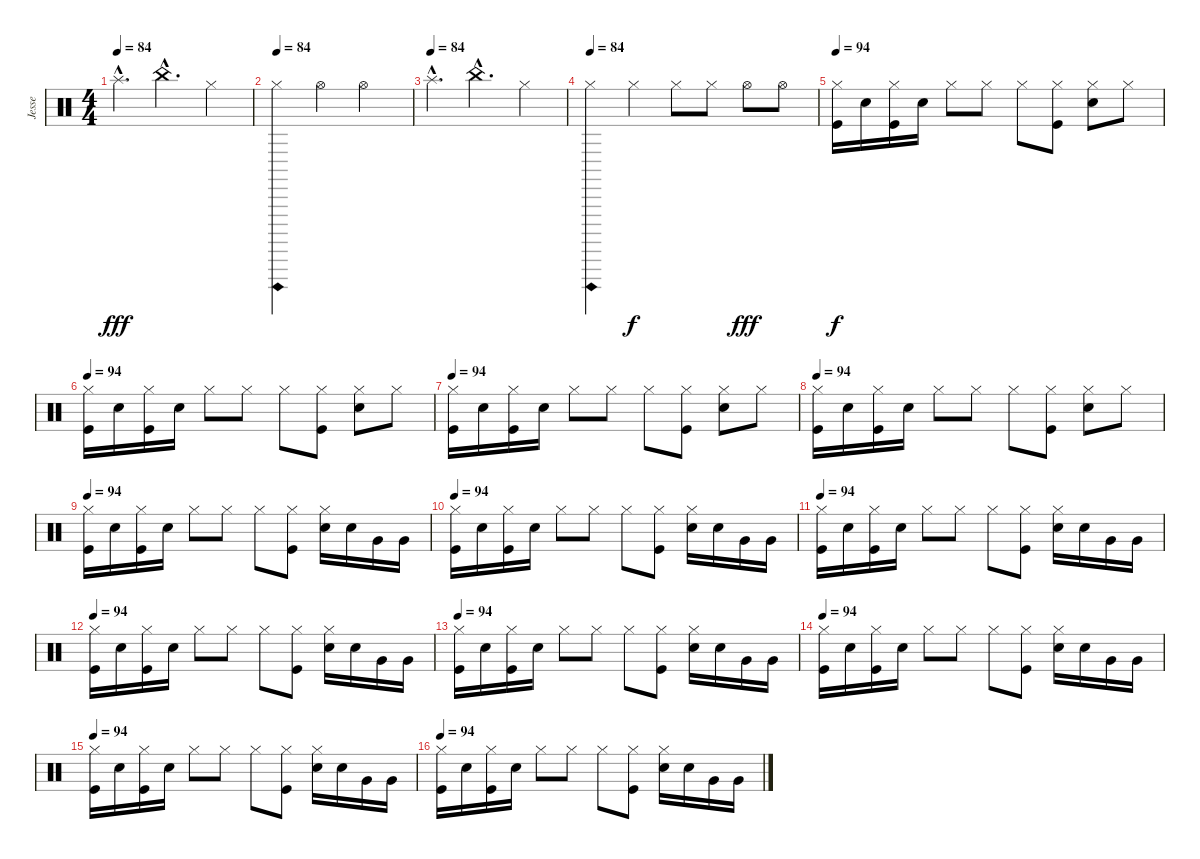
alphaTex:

\track ("Jesse" "Jesse") {instrument percussion}
\staff {score}
\articulation defaults
\ts (4 4)
\tempo 84
\clef neutral
\ks c "Splash (hit)"{hac}.4{d dy fff} "China (hit)"{hac}.4{d} "Hi-Hat (closed)".4
|
\tempo (84)
"Hi-Hat (closed)"{ah 12}.4 "Hi-Hat (open)".4 "Hi-Hat (open)".2 |
\tempo (84)
"Splash (hit)"{hac}.4{d} "China (hit)"{hac}.4{d} "Hi-Hat (closed)".4 |
\tempo (84)
"Hi-Hat (closed)"{ah 12}.4 "Hi-Hat (closed)".4{dy f} "Hi-Hat (closed)".8 "Hi-Hat (closed)".8 "Hi-Hat (open)".8{dy fff} "Hi-Hat (open)".8 |
\tempo 94
("Hi-Hat (closed)" "Kick (hit)").16{dy f} "Snare (hit) 2".16 ("Hi-Hat (closed)" "Kick (hit)").16 "Snare (hit) 2".16 "Hi-Hat (closed)".8 "Hi-Hat (closed)".8 "Hi-Hat (closed)".8 ("Hi-Hat (closed)" "Kick (hit)").8 ("Hi-Hat (closed)" "Snare (hit) 2").8 "Hi-Hat (closed)".8 |
\tempo 94
("Hi-Hat (closed)" "Kick (hit)").16 "Snare (hit) 2".16 ("Hi-Hat (closed)" "Kick (hit)").16 "Snare (hit) 2".16 "Hi-Hat (closed)".8 "Hi-Hat (closed)".8 "Hi-Hat (closed)".8 ("Hi-Hat (closed)" "Kick (hit)").8 ("Hi-Hat (closed)" "Snare (hit) 2").8 "Hi-Hat (closed)".8 |
\tempo 94
("Hi-Hat (closed)" "Kick (hit)").16 "Snare (hit) 2".16 ("Hi-Hat (closed)" "Kick (hit)").16 "Snare (hit) 2".16 "Hi-Hat (closed)".8 "Hi-Hat (closed)".8 "Hi-Hat (closed)".8 ("Hi-Hat (closed)" "Kick (hit)").8 ("Hi-Hat (closed)" "Snare (hit) 2").8 "Hi-Hat (closed)".8 |
\tempo 94
("Hi-Hat (closed)" "Kick (hit)").16 "Snare (hit) 2".16 ("Hi-Hat (closed)" "Kick (hit)").16 "Snare (hit) 2".16 "Hi-Hat (closed)".8 "Hi-Hat (closed)".8 "Hi-Hat (closed)".8 ("Hi-Hat (closed)" "Kick (hit)").8 ("Hi-Hat (closed)" "Snare (hit) 2").8 "Hi-Hat (closed)".8 |
\tempo 94
("Hi-Hat (closed)" "Kick (hit)").16 "Snare (hit) 2".16 ("Hi-Hat (closed)" "Kick (hit)").16 "Snare (hit) 2".16 "Hi-Hat (closed)".8 "Hi-Hat (closed)".8 "Hi-Hat (closed)".8 ("Hi-Hat (closed)" "Kick (hit)").8 ("Hi-Hat (closed)" "Snare (hit) 2").16 "Snare (hit) 2".16 "Very Low Tom (hit)".16 "Very Low Tom (hit)".16 |
\tempo 94
("Hi-Hat (closed)" "Kick (hit)").16 "Snare (hit) 2".16 ("Hi-Hat (closed)" "Kick (hit)").16 "Snare (hit) 2".16 "Hi-Hat (closed)".8 "Hi-Hat (closed)".8 "Hi-Hat (closed)".8 ("Hi-Hat (closed)" "Kick (hit)").8 ("Hi-Hat (closed)" "Snare (hit) 2").16 "Snare (hit) 2".16 "Very Low Tom (hit)".16 "Very Low Tom (hit)".16 |
\tempo 94
("Hi-Hat (closed)" "Kick (hit)").16 "Snare (hit) 2".16 ("Hi-Hat (closed)" "Kick (hit)").16 "Snare (hit) 2".16 "Hi-Hat (closed)".8 "Hi-Hat (closed)".8 "Hi-Hat (closed)".8 ("Hi-Hat (closed)" "Kick (hit)").8 ("Hi-Hat (closed)" "Snare (hit) 2").16 "Snare (hit) 2".16 "Very Low Tom (hit)".16 "Very Low Tom (hit)".16 |
\tempo 94
("Hi-Hat (closed)" "Kick (hit)").16 "Snare (hit) 2".16 ("Hi-Hat (closed)" "Kick (hit)").16 "Snare (hit) 2".16 "Hi-Hat (closed)".8 "Hi-Hat (closed)".8 "Hi-Hat (closed)".8 ("Hi-Hat (closed)" "Kick (hit)").8 ("Hi-Hat (closed)" "Snare (hit) 2").16 "Snare (hit) 2".16 "Very Low Tom (hit)".16 "Very Low Tom (hit)".16 |
\tempo 94
("Hi-Hat (closed)" "Kick (hit)").16 "Snare (hit) 2".16 ("Hi-Hat (closed)" "Kick (hit)").16 "Snare (hit) 2".16 "Hi-Hat (closed)".8 "Hi-Hat (closed)".8 "Hi-Hat (closed)".8 ("Hi-Hat (closed)" "Kick (hit)").8 ("Hi-Hat (closed)" "Snare (hit) 2").16 "Snare (hit) 2".16 "Very Low Tom (hit)".16 "Very Low Tom (hit)".16 |
\tempo 94
("Hi-Hat (closed)" "Kick (hit)").16 "Snare (hit) 2".16 ("Hi-Hat (closed)" "Kick (hit)").16 "Snare (hit) 2".16 "Hi-Hat (closed)".8 "Hi-Hat (closed)".8 "Hi-Hat (closed)".8 ("Hi-Hat (closed)" "Kick (hit)").8 ("Hi-Hat (closed)" "Snare (hit) 2").16 "Snare (hit) 2".16 "Very Low Tom (hit)".16 "Very Low Tom (hit)".16 |
\tempo 94
("Hi-Hat (closed)" "Kick (hit)").16 "Snare (hit) 2".16 ("Hi-Hat (closed)" "Kick (hit)").16 "Snare (hit) 2".16 "Hi-Hat (closed)".8 "Hi-Hat (closed)".8 "Hi-Hat (closed)".8 ("Hi-Hat (closed)" "Kick (hit)").8 ("Hi-Hat (closed)" "Snare (hit) 2").16 "Snare (hit) 2".16 "Very Low Tom (hit)".16 "Very Low Tom (hit)".16 |
\tempo 94
("Hi-Hat (closed)" "Kick (hit)").16 "Snare (hit) 2".16 ("Hi-Hat (closed)" "Kick (hit)").16 "Snare (hit) 2".16 "Hi-Hat (closed)".8 "Hi-Hat (closed)".8 "Hi-Hat (closed)".8 ("Hi-Hat (closed)" "Kick (hit)").8 ("Hi-Hat (closed)" "Snare (hit) 2").16 "Snare (hit) 2".16 "Very Low Tom (hit)".16 "Very Low Tom (hit)".16
